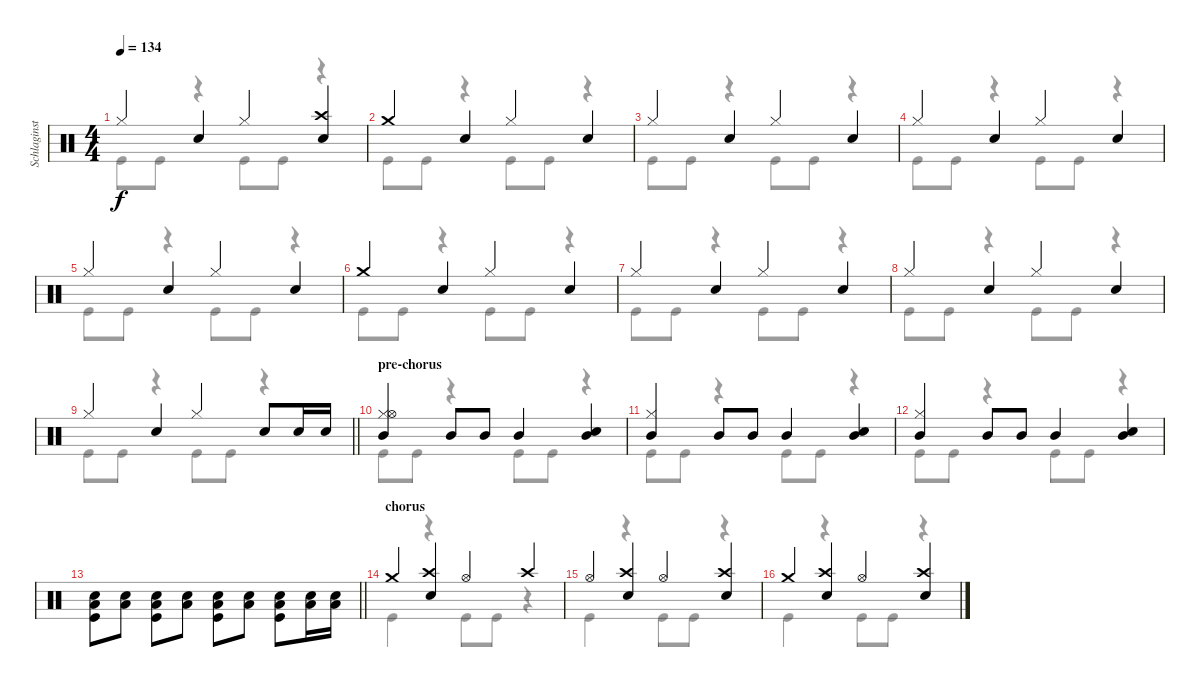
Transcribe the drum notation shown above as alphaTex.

\track ("Schlaginstrumente - Auswahl" "Schlaginst") {instrument percussion}
\staff {score}
\articulation defaults
\voice
\ts (4 4)
\tempo 134
\clef neutral
\ks c "Hi-Hat (closed)".4{dy f} "Snare (hit) 2".4 "Hi-Hat (closed)".4
("Snare (hit) 2" "Crash high (hit)").4 |
"Crash medium (hit)".4 "Snare (hit) 2".4 "Hi-Hat (closed)".4 "Snare (hit) 2".4 |
"Hi-Hat (closed)".4 "Snare (hit) 2".4 "Hi-Hat (closed)".4 "Snare (hit) 2".4 |
"Hi-Hat (closed)".4 "Snare (hit) 2".4 "Hi-Hat (closed)".4 "Snare (hit) 2".4 |
"Hi-Hat (closed)".4 "Snare (hit) 2".4 "Hi-Hat (closed)".4 "Snare (hit) 2".4 |
"Crash medium (hit)".4 "Snare (hit) 2".4 "Hi-Hat (closed)".4 "Snare (hit) 2".4 |
"Hi-Hat (closed)".4 "Snare (hit) 2".4 "Hi-Hat (closed)".4 "Snare (hit) 2".4 |
"Hi-Hat (closed)".4 "Snare (hit) 2".4 "Hi-Hat (closed)".4 "Snare (hit) 2".4 |
\barLineRight lightlight "Hi-Hat (closed)".4 "Snare (hit) 2".4 "Hi-Hat (closed)".4 "Snare (hit) 2".8 "Snare (hit) 2".16 "Snare (hit) 2".16
|
\section ("" "pre-chorus")
("Mid Tom (hit)" "Hi-Hat (closed)" "Hi-Hat (open)").4 "Mid Tom (hit)".8 "Mid Tom (hit)".8 "Mid Tom (hit)".4 ("Mid Tom (hit)" "Snare (hit) 2").4 |
("Mid Tom (hit)" "Hi-Hat (closed)").4 "Mid Tom (hit)".8 "Mid Tom (hit)".8 "Mid Tom (hit)".4 ("Mid Tom (hit)" "Snare (hit) 2").4 |
("Mid Tom (hit)" "Hi-Hat (closed)").4 "Mid Tom (hit)".8 "Mid Tom (hit)".8 "Mid Tom (hit)".4 ("Mid Tom (hit)" "Snare (hit) 2").4 |
\barLineRight lightlight
("Snare (hit) 2" "Kick (hit)" "Low Tom (hit)").8 ("Snare (hit) 2" "Low Tom (hit)").8 ("Snare (hit) 2" "Kick (hit)" "Low Tom (hit)").8 ("Snare (hit) 2" "Low Tom (hit)").8 ("Snare (hit) 2" "Kick (hit)" "Low Tom (hit)").8 ("Snare (hit) 2" "Low Tom (hit)").8 ("Snare (hit) 2" "Kick (hit)" "Low Tom (hit)").8 ("Snare (hit) 2" "Low Tom (hit)").16 ("Snare (hit) 2" "Low Tom (hit)").16 |
\section ("" "chorus")
"Crash medium (hit)".4 ("Crash high (hit)" "Snare (hit) 2").4 "Hi-Hat (open)".4 "Crash high (hit)".4 |
"Hi-Hat (open)".4 ("Crash high (hit)" "Snare (hit) 2").4 "Hi-Hat (open)".4 ("Snare (hit) 2" "Crash high (hit)").4 |
"Crash medium (hit)".4 ("Crash high (hit)" "Snare (hit) 2").4 "Hi-Hat (open)".4 ("Crash high (hit)" "Snare (hit) 2").4
\voice
\clef neutral
\ottava regular
\simile none
\ks c "Kick (hit)".8{dy f} "Kick (hit)".8
r.4 "Kick (hit)".8 "Kick (hit)".8 r.4 |
"Kick (hit)".8 "Kick (hit)".8 r.4 "Kick (hit)".8 "Kick (hit)".8 r.4 |
"Kick (hit)".8 "Kick (hit)".8 r.4 "Kick (hit)".8 "Kick (hit)".8 r.4 |
"Kick (hit)".8 "Kick (hit)".8 r.4 "Kick (hit)".8 "Kick (hit)".8 r.4 |
"Kick (hit)".8 "Kick (hit)".8 r.4 "Kick (hit)".8 "Kick (hit)".8 r.4 |
"Kick (hit)".8 "Kick (hit)".8 r.4 "Kick (hit)".8 "Kick (hit)".8 r.4 |
"Kick (hit)".8 "Kick (hit)".8 r.4 "Kick (hit)".8 "Kick (hit)".8 r.4 |
"Kick (hit)".8 "Kick (hit)".8 r.4 "Kick (hit)".8 "Kick (hit)".8 r.4 |
\barLineRight lightlight "Kick (hit)".8 "Kick (hit)".8
r.4 "Kick (hit)".8 "Kick (hit)".8 r.4 |
"Kick (hit)".8 "Kick (hit)".8 r.4 "Kick (hit)".8 "Kick (hit)".8 r.4 |
"Kick (hit)".8 "Kick (hit)".8 r.4 "Kick (hit)".8 "Kick (hit)".8 r.4 |
"Kick (hit)".8 "Kick (hit)".8 r.4 "Kick (hit)".8 "Kick (hit)".8 r.4 |
\barLineRight lightlight
|
"Kick (hit)".4 r.4 "Kick (hit)".8 "Kick (hit)".8 r.4 |
"Kick (hit)".4 r.4 "Kick (hit)".8 "Kick (hit)".8 r.4 |
"Kick (hit)".4 r.4 "Kick (hit)".8 "Kick (hit)".8 r.4
